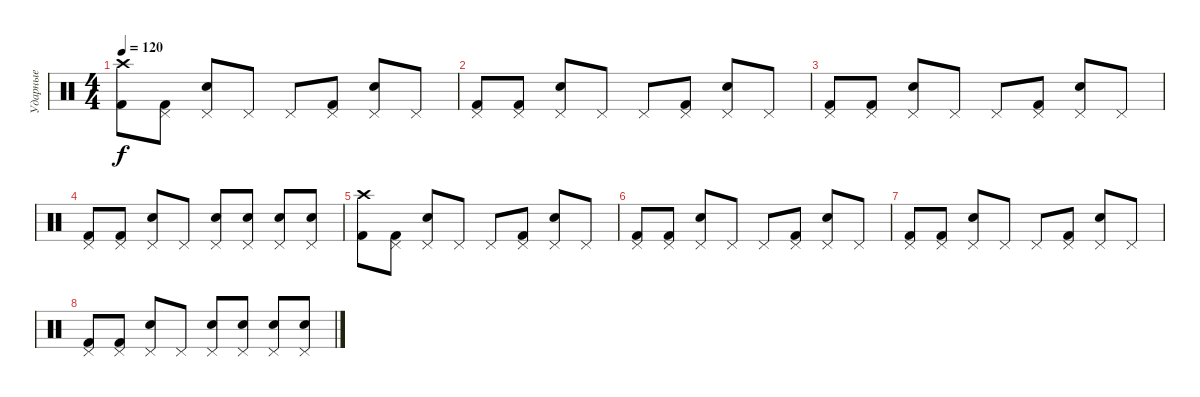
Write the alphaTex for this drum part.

\track ("Ударные" "Ударные") {instrument percussion}
\staff {score}
\articulation defaults
\ts (4 4)
\tempo 120
\clef neutral
\ks c
("Crash high (hit)" "Kick (hit) 2").8{dy f} ("Pedal Hi-Hat (hit)" "Kick (hit) 2").8 ("Pedal Hi-Hat (hit)" "Snare (hit) 2").8 "Pedal Hi-Hat (hit)".8 "Pedal Hi-Hat (hit)".8 ("Pedal Hi-Hat (hit)" "Kick (hit) 2").8 ("Pedal Hi-Hat (hit)" "Snare (hit) 2").8 "Pedal Hi-Hat (hit)".8 |
("Pedal Hi-Hat (hit)" "Kick (hit) 2").8 ("Pedal Hi-Hat (hit)" "Kick (hit) 2").8 ("Pedal Hi-Hat (hit)" "Snare (hit) 2").8 "Pedal Hi-Hat (hit)".8 "Pedal Hi-Hat (hit)".8 ("Pedal Hi-Hat (hit)" "Kick (hit) 2").8 ("Pedal Hi-Hat (hit)" "Snare (hit) 2").8 "Pedal Hi-Hat (hit)".8 |
("Pedal Hi-Hat (hit)" "Kick (hit) 2").8 ("Pedal Hi-Hat (hit)" "Kick (hit) 2").8 ("Pedal Hi-Hat (hit)" "Snare (hit) 2").8 "Pedal Hi-Hat (hit)".8 "Pedal Hi-Hat (hit)".8 ("Pedal Hi-Hat (hit)" "Kick (hit) 2").8 ("Pedal Hi-Hat (hit)" "Snare (hit) 2").8 "Pedal Hi-Hat (hit)".8 |
("Pedal Hi-Hat (hit)" "Kick (hit) 2").8 ("Pedal Hi-Hat (hit)" "Kick (hit) 2").8 ("Pedal Hi-Hat (hit)" "Snare (hit) 2").8 "Pedal Hi-Hat (hit)".8 ("Pedal Hi-Hat (hit)" "Snare (hit) 2").8 ("Pedal Hi-Hat (hit)" "Snare (hit) 2").8 ("Pedal Hi-Hat (hit)" "Snare (hit) 2").8 ("Pedal Hi-Hat (hit)" "Snare (hit) 2").8 |
("Crash high (hit)" "Kick (hit) 2").8 ("Pedal Hi-Hat (hit)" "Kick (hit) 2").8 ("Pedal Hi-Hat (hit)" "Snare (hit) 2").8 "Pedal Hi-Hat (hit)".8 "Pedal Hi-Hat (hit)".8 ("Pedal Hi-Hat (hit)" "Kick (hit) 2").8 ("Pedal Hi-Hat (hit)" "Snare (hit) 2").8 "Pedal Hi-Hat (hit)".8 |
("Pedal Hi-Hat (hit)" "Kick (hit) 2").8 ("Pedal Hi-Hat (hit)" "Kick (hit) 2").8 ("Pedal Hi-Hat (hit)" "Snare (hit) 2").8 "Pedal Hi-Hat (hit)".8 "Pedal Hi-Hat (hit)".8 ("Pedal Hi-Hat (hit)" "Kick (hit) 2").8 ("Pedal Hi-Hat (hit)" "Snare (hit) 2").8 "Pedal Hi-Hat (hit)".8 |
("Pedal Hi-Hat (hit)" "Kick (hit) 2").8 ("Pedal Hi-Hat (hit)" "Kick (hit) 2").8 ("Pedal Hi-Hat (hit)" "Snare (hit) 2").8 "Pedal Hi-Hat (hit)".8 "Pedal Hi-Hat (hit)".8 ("Pedal Hi-Hat (hit)" "Kick (hit) 2").8 ("Pedal Hi-Hat (hit)" "Snare (hit) 2").8 "Pedal Hi-Hat (hit)".8 |
("Pedal Hi-Hat (hit)" "Kick (hit) 2").8 ("Pedal Hi-Hat (hit)" "Kick (hit) 2").8 ("Pedal Hi-Hat (hit)" "Snare (hit) 2").8 "Pedal Hi-Hat (hit)".8 ("Pedal Hi-Hat (hit)" "Snare (hit) 2").8 ("Pedal Hi-Hat (hit)" "Snare (hit) 2").8 ("Pedal Hi-Hat (hit)" "Snare (hit) 2").8 ("Pedal Hi-Hat (hit)" "Snare (hit) 2").8
